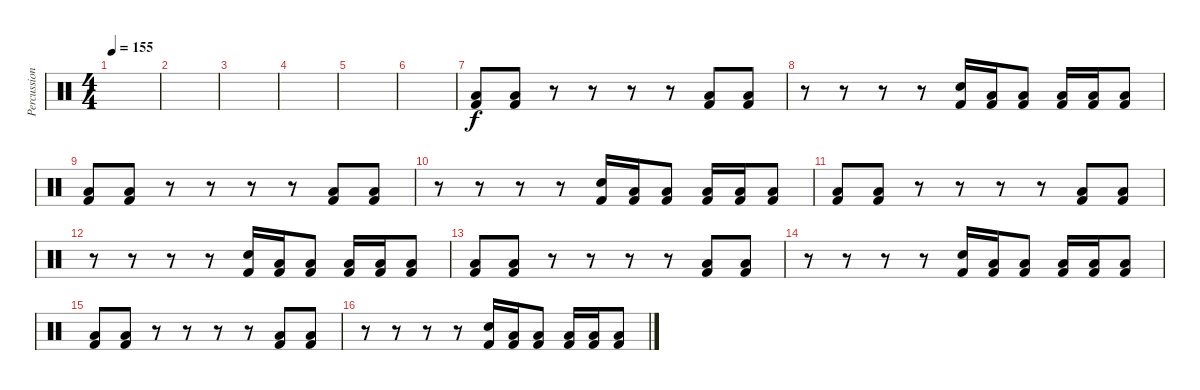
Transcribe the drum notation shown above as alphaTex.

\track ("Percussion" "Percussion") {instrument percussion}
\staff {score}
\articulation defaults
\ts (4 4)
\tempo 155
\clef neutral
\ks c
|
|
|
|
|
|
("Low Tom (hit)" "Kick (hit) 2").8{volume 10} ("Low Tom (hit)" "Kick (hit) 2").8 r.8 r.8 r.8 r.8 ("Low Tom (hit)" "Kick (hit) 2").8 ("Low Tom (hit)" "Kick (hit) 2").8 |
r.8 r.8 r.8 r.8 ("Electric Snare (hit)" "Kick (hit) 2").16 ("Low Tom (hit)" "Kick (hit) 2").16 ("Low Tom (hit)" "Kick (hit) 2").8 ("Low Tom (hit)" "Kick (hit) 2").16 ("Low Tom (hit)" "Kick (hit) 2").16 ("Low Tom (hit)" "Kick (hit) 2").8 |
("Low Tom (hit)" "Kick (hit) 2").8 ("Low Tom (hit)" "Kick (hit) 2").8 r.8 r.8 r.8 r.8 ("Low Tom (hit)" "Kick (hit) 2").8 ("Low Tom (hit)" "Kick (hit) 2").8 |
r.8 r.8 r.8 r.8 ("Electric Snare (hit)" "Kick (hit) 2").16 ("Low Tom (hit)" "Kick (hit) 2").16 ("Low Tom (hit)" "Kick (hit) 2").8 ("Low Tom (hit)" "Kick (hit) 2").16 ("Low Tom (hit)" "Kick (hit) 2").16 ("Low Tom (hit)" "Kick (hit) 2").8 |
("Low Tom (hit)" "Kick (hit) 2").8 ("Low Tom (hit)" "Kick (hit) 2").8 r.8 r.8 r.8 r.8 ("Low Tom (hit)" "Kick (hit) 2").8 ("Low Tom (hit)" "Kick (hit) 2").8 |
r.8 r.8 r.8 r.8 ("Electric Snare (hit)" "Kick (hit) 2").16 ("Low Tom (hit)" "Kick (hit) 2").16 ("Low Tom (hit)" "Kick (hit) 2").8 ("Low Tom (hit)" "Kick (hit) 2").16 ("Low Tom (hit)" "Kick (hit) 2").16 ("Low Tom (hit)" "Kick (hit) 2").8 |
("Low Tom (hit)" "Kick (hit) 2").8 ("Low Tom (hit)" "Kick (hit) 2").8 r.8 r.8 r.8 r.8 ("Low Tom (hit)" "Kick (hit) 2").8 ("Low Tom (hit)" "Kick (hit) 2").8 |
r.8 r.8 r.8 r.8 ("Electric Snare (hit)" "Kick (hit) 2").16 ("Low Tom (hit)" "Kick (hit) 2").16 ("Low Tom (hit)" "Kick (hit) 2").8 ("Low Tom (hit)" "Kick (hit) 2").16 ("Low Tom (hit)" "Kick (hit) 2").16 ("Low Tom (hit)" "Kick (hit) 2").8 |
("Low Tom (hit)" "Kick (hit) 2").8{volume 16} ("Low Tom (hit)" "Kick (hit) 2").8 r.8 r.8 r.8 r.8 ("Low Tom (hit)" "Kick (hit) 2").8 ("Low Tom (hit)" "Kick (hit) 2").8 |
r.8 r.8 r.8 r.8 ("Electric Snare (hit)" "Kick (hit) 2").16 ("Low Tom (hit)" "Kick (hit) 2").16 ("Low Tom (hit)" "Kick (hit) 2").8 ("Low Tom (hit)" "Kick (hit) 2").16 ("Low Tom (hit)" "Kick (hit) 2").16 ("Low Tom (hit)" "Kick (hit) 2").8
